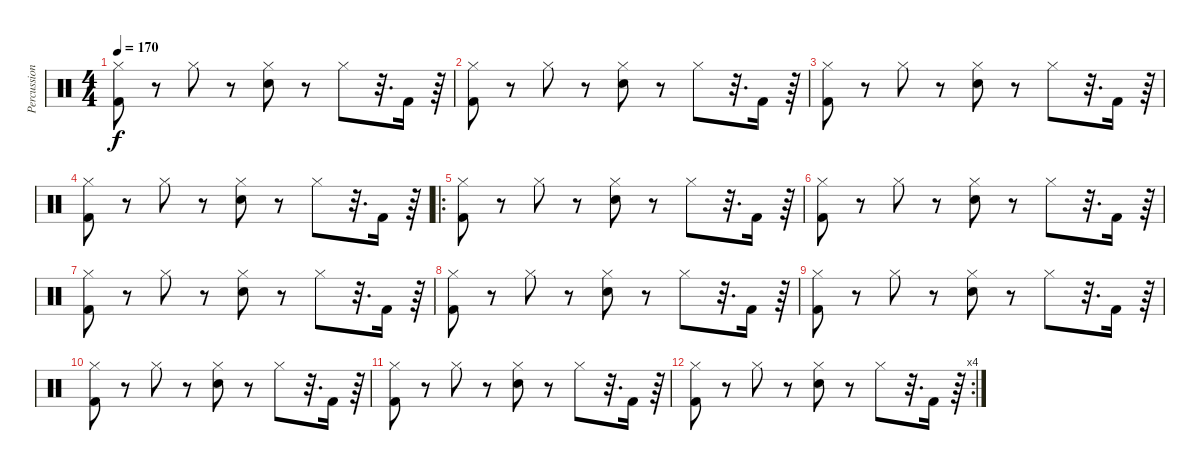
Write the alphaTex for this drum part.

\track ("Percussion" "Percussion") {instrument percussion}
\staff {score}
\articulation defaults
\ts (4 4)
\tempo 170
\clef neutral
\ks c
("Hi-Hat (closed)" "Kick (hit) 2").8{dy f} r.8 "Hi-Hat (closed)".8 r.8 ("Hi-Hat (closed)" "Electric Snare (hit)").8 r.8 "Hi-Hat (closed)".8 r.32{d} "Kick (hit) 2".16 r.64 |
("Hi-Hat (closed)" "Kick (hit) 2").8 r.8 "Hi-Hat (closed)".8 r.8 ("Hi-Hat (closed)" "Electric Snare (hit)").8 r.8 "Hi-Hat (closed)".8 r.32{d} "Kick (hit) 2".16 r.64 |
("Hi-Hat (closed)" "Kick (hit) 2").8 r.8 "Hi-Hat (closed)".8 r.8 ("Hi-Hat (closed)" "Electric Snare (hit)").8 r.8 "Hi-Hat (closed)".8 r.32{d} "Kick (hit) 2".16 r.64 |
("Hi-Hat (closed)" "Kick (hit) 2").8 r.8 "Hi-Hat (closed)".8 r.8 ("Hi-Hat (closed)" "Electric Snare (hit)").8 r.8 "Hi-Hat (closed)".8 r.32{d} "Kick (hit) 2".16 r.64 |
\ro
("Hi-Hat (closed)" "Kick (hit) 2").8 r.8 "Hi-Hat (closed)".8 r.8 ("Hi-Hat (closed)" "Electric Snare (hit)").8 r.8 "Hi-Hat (closed)".8 r.32{d} "Kick (hit) 2".16 r.64 |
("Hi-Hat (closed)" "Kick (hit) 2").8 r.8 "Hi-Hat (closed)".8 r.8 ("Hi-Hat (closed)" "Electric Snare (hit)").8 r.8 "Hi-Hat (closed)".8 r.32{d} "Kick (hit) 2".16 r.64 |
("Hi-Hat (closed)" "Kick (hit) 2").8 r.8 "Hi-Hat (closed)".8 r.8 ("Hi-Hat (closed)" "Electric Snare (hit)").8 r.8 "Hi-Hat (closed)".8 r.32{d} "Kick (hit) 2".16 r.64 |
("Hi-Hat (closed)" "Kick (hit) 2").8 r.8 "Hi-Hat (closed)".8 r.8 ("Hi-Hat (closed)" "Electric Snare (hit)").8 r.8 "Hi-Hat (closed)".8 r.32{d} "Kick (hit) 2".16 r.64 |
("Hi-Hat (closed)" "Kick (hit) 2").8 r.8 "Hi-Hat (closed)".8 r.8 ("Hi-Hat (closed)" "Electric Snare (hit)").8 r.8 "Hi-Hat (closed)".8 r.32{d} "Kick (hit) 2".16 r.64 |
("Hi-Hat (closed)" "Kick (hit) 2").8 r.8 "Hi-Hat (closed)".8 r.8 ("Hi-Hat (closed)" "Electric Snare (hit)").8 r.8 "Hi-Hat (closed)".8 r.32{d} "Kick (hit) 2".16 r.64 |
("Hi-Hat (closed)" "Kick (hit) 2").8 r.8 "Hi-Hat (closed)".8 r.8 ("Hi-Hat (closed)" "Electric Snare (hit)").8 r.8 "Hi-Hat (closed)".8 r.32{d} "Kick (hit) 2".16 r.64 |
\rc 4
("Hi-Hat (closed)" "Kick (hit) 2").8 r.8 "Hi-Hat (closed)".8 r.8 ("Hi-Hat (closed)" "Electric Snare (hit)").8 r.8 "Hi-Hat (closed)".8 r.32{d} "Kick (hit) 2".16 r.64
